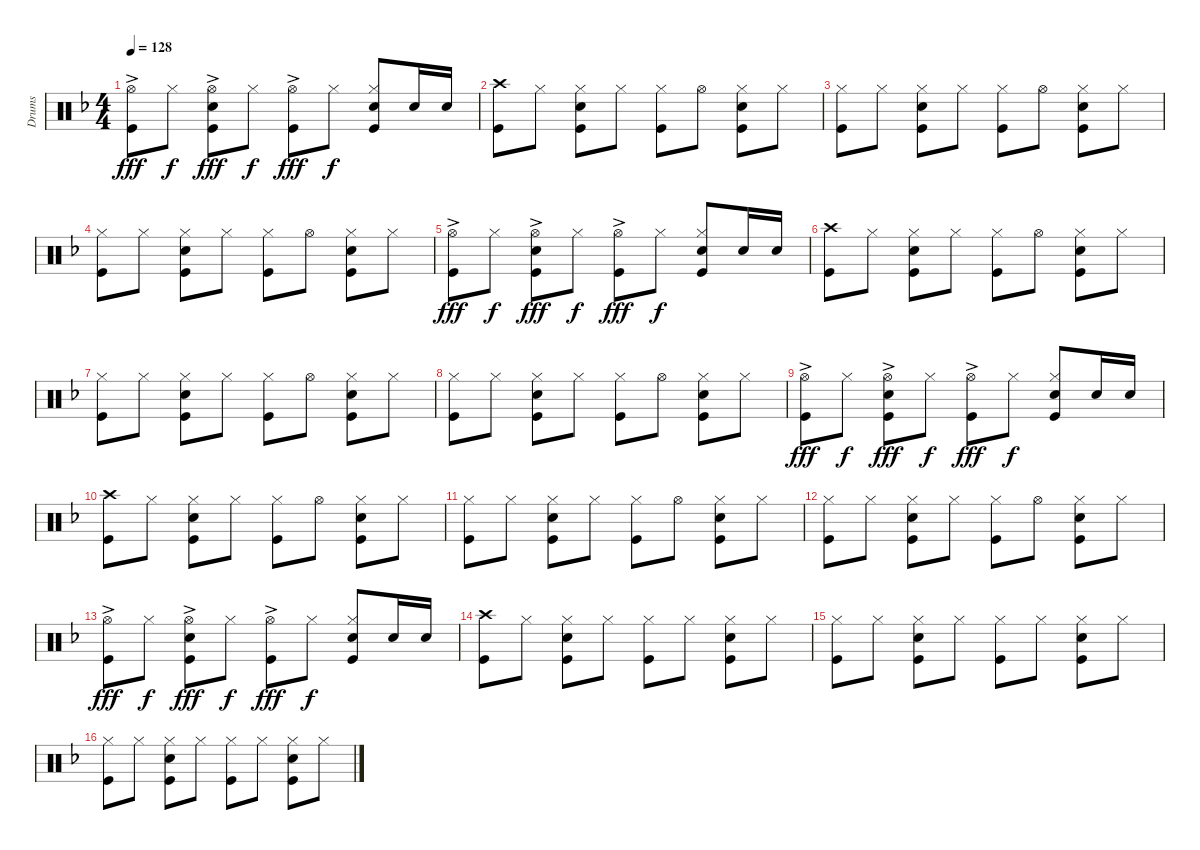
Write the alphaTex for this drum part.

\track ("Drums" "Drums") {instrument percussion}
\staff {score}
\articulation defaults
\ts (4 4)
\tempo 128
\clef neutral
\ks f
("Hi-Hat (open)"{ac} "Kick (hit)").8{dy fff} "Hi-Hat (closed)".8{dy f} ("Hi-Hat (open)"{ac} "Snare (hit) 2" "Kick (hit)").8{dy fff} "Hi-Hat (closed)".8{dy f} ("Hi-Hat (open)"{ac} "Kick (hit)").8{dy fff} "Hi-Hat (closed)".8{dy f} ("Hi-Hat (closed)" "Snare (hit) 2" "Kick (hit)").8 "Snare (hit) 2".16 "Snare (hit) 2".16 |
("Crash high (hit)" "Kick (hit)").8 "Hi-Hat (closed)".8 ("Hi-Hat (closed)" "Snare (hit) 2" "Kick (hit)").8 "Hi-Hat (closed)".8 ("Hi-Hat (closed)" "Kick (hit)").8 "Hi-Hat (open)".8 ("Hi-Hat (closed)" "Snare (hit) 2" "Kick (hit)").8 "Hi-Hat (closed)".8 |
("Hi-Hat (closed)" "Kick (hit)").8 "Hi-Hat (closed)".8 ("Hi-Hat (closed)" "Snare (hit) 2" "Kick (hit)").8 "Hi-Hat (closed)".8 ("Hi-Hat (closed)" "Kick (hit)").8 "Hi-Hat (open)".8 ("Hi-Hat (closed)" "Snare (hit) 2" "Kick (hit)").8 "Hi-Hat (closed)".8 |
("Hi-Hat (closed)" "Kick (hit)").8 "Hi-Hat (closed)".8 ("Hi-Hat (closed)" "Snare (hit) 2" "Kick (hit)").8 "Hi-Hat (closed)".8 ("Hi-Hat (closed)" "Kick (hit)").8 "Hi-Hat (open)".8 ("Hi-Hat (closed)" "Snare (hit) 2" "Kick (hit)").8 "Hi-Hat (closed)".8 |
("Hi-Hat (open)"{ac} "Kick (hit)").8{dy fff} "Hi-Hat (closed)".8{dy f} ("Hi-Hat (open)"{ac} "Snare (hit) 2" "Kick (hit)").8{dy fff} "Hi-Hat (closed)".8{dy f} ("Hi-Hat (open)"{ac} "Kick (hit)").8{dy fff} "Hi-Hat (closed)".8{dy f} ("Hi-Hat (closed)" "Snare (hit) 2" "Kick (hit)").8 "Snare (hit) 2".16 "Snare (hit) 2".16 |
("Crash high (hit)" "Kick (hit)").8 "Hi-Hat (closed)".8 ("Hi-Hat (closed)" "Snare (hit) 2" "Kick (hit)").8 "Hi-Hat (closed)".8 ("Hi-Hat (closed)" "Kick (hit)").8 "Hi-Hat (open)".8 ("Hi-Hat (closed)" "Snare (hit) 2" "Kick (hit)").8 "Hi-Hat (closed)".8 |
("Hi-Hat (closed)" "Kick (hit)").8 "Hi-Hat (closed)".8 ("Hi-Hat (closed)" "Snare (hit) 2" "Kick (hit)").8 "Hi-Hat (closed)".8 ("Hi-Hat (closed)" "Kick (hit)").8 "Hi-Hat (open)".8 ("Hi-Hat (closed)" "Snare (hit) 2" "Kick (hit)").8 "Hi-Hat (closed)".8 |
("Hi-Hat (closed)" "Kick (hit)").8 "Hi-Hat (closed)".8 ("Hi-Hat (closed)" "Snare (hit) 2" "Kick (hit)").8 "Hi-Hat (closed)".8 ("Hi-Hat (closed)" "Kick (hit)").8 "Hi-Hat (open)".8 ("Hi-Hat (closed)" "Snare (hit) 2" "Kick (hit)").8 "Hi-Hat (closed)".8 |
("Hi-Hat (open)"{ac} "Kick (hit)").8{dy fff} "Hi-Hat (closed)".8{dy f} ("Hi-Hat (open)"{ac} "Snare (hit) 2" "Kick (hit)").8{dy fff} "Hi-Hat (closed)".8{dy f} ("Hi-Hat (open)"{ac} "Kick (hit)").8{dy fff} "Hi-Hat (closed)".8{dy f} ("Hi-Hat (closed)" "Snare (hit) 2" "Kick (hit)").8 "Snare (hit) 2".16 "Snare (hit) 2".16 |
("Crash high (hit)" "Kick (hit)").8 "Hi-Hat (closed)".8 ("Hi-Hat (closed)" "Snare (hit) 2" "Kick (hit)").8 "Hi-Hat (closed)".8 ("Hi-Hat (closed)" "Kick (hit)").8 "Hi-Hat (open)".8 ("Hi-Hat (closed)" "Snare (hit) 2" "Kick (hit)").8 "Hi-Hat (closed)".8 |
("Hi-Hat (closed)" "Kick (hit)").8 "Hi-Hat (closed)".8 ("Hi-Hat (closed)" "Snare (hit) 2" "Kick (hit)").8 "Hi-Hat (closed)".8 ("Hi-Hat (closed)" "Kick (hit)").8 "Hi-Hat (open)".8 ("Hi-Hat (closed)" "Snare (hit) 2" "Kick (hit)").8 "Hi-Hat (closed)".8 |
("Hi-Hat (closed)" "Kick (hit)").8 "Hi-Hat (closed)".8 ("Hi-Hat (closed)" "Snare (hit) 2" "Kick (hit)").8 "Hi-Hat (closed)".8 ("Hi-Hat (closed)" "Kick (hit)").8 "Hi-Hat (open)".8 ("Hi-Hat (closed)" "Snare (hit) 2" "Kick (hit)").8 "Hi-Hat (closed)".8 |
("Hi-Hat (open)"{ac} "Kick (hit)").8{dy fff} "Hi-Hat (closed)".8{dy f} ("Hi-Hat (open)"{ac} "Snare (hit) 2" "Kick (hit)").8{dy fff} "Hi-Hat (closed)".8{dy f} ("Hi-Hat (open)"{ac} "Kick (hit)").8{dy fff} "Hi-Hat (closed)".8{dy f} ("Hi-Hat (closed)" "Snare (hit) 2" "Kick (hit)").8 "Snare (hit) 2".16 "Snare (hit) 2".16 |
("Crash high (hit)" "Kick (hit)").8 "Hi-Hat (closed)".8 ("Hi-Hat (closed)" "Snare (hit) 2" "Kick (hit)").8 "Hi-Hat (closed)".8 ("Hi-Hat (closed)" "Kick (hit)").8 "Hi-Hat (closed)".8 ("Hi-Hat (closed)" "Snare (hit) 2" "Kick (hit)").8 "Hi-Hat (closed)".8 |
("Hi-Hat (closed)" "Kick (hit)").8 "Hi-Hat (closed)".8 ("Hi-Hat (closed)" "Snare (hit) 2" "Kick (hit)").8 "Hi-Hat (closed)".8 ("Hi-Hat (closed)" "Kick (hit)").8 "Hi-Hat (closed)".8 ("Hi-Hat (closed)" "Snare (hit) 2" "Kick (hit)").8 "Hi-Hat (closed)".8 |
("Hi-Hat (closed)" "Kick (hit)").8 "Hi-Hat (closed)".8 ("Hi-Hat (closed)" "Snare (hit) 2" "Kick (hit)").8 "Hi-Hat (closed)".8 ("Hi-Hat (closed)" "Kick (hit)").8 "Hi-Hat (closed)".8 ("Hi-Hat (closed)" "Snare (hit) 2" "Kick (hit)").8 "Hi-Hat (closed)".8
